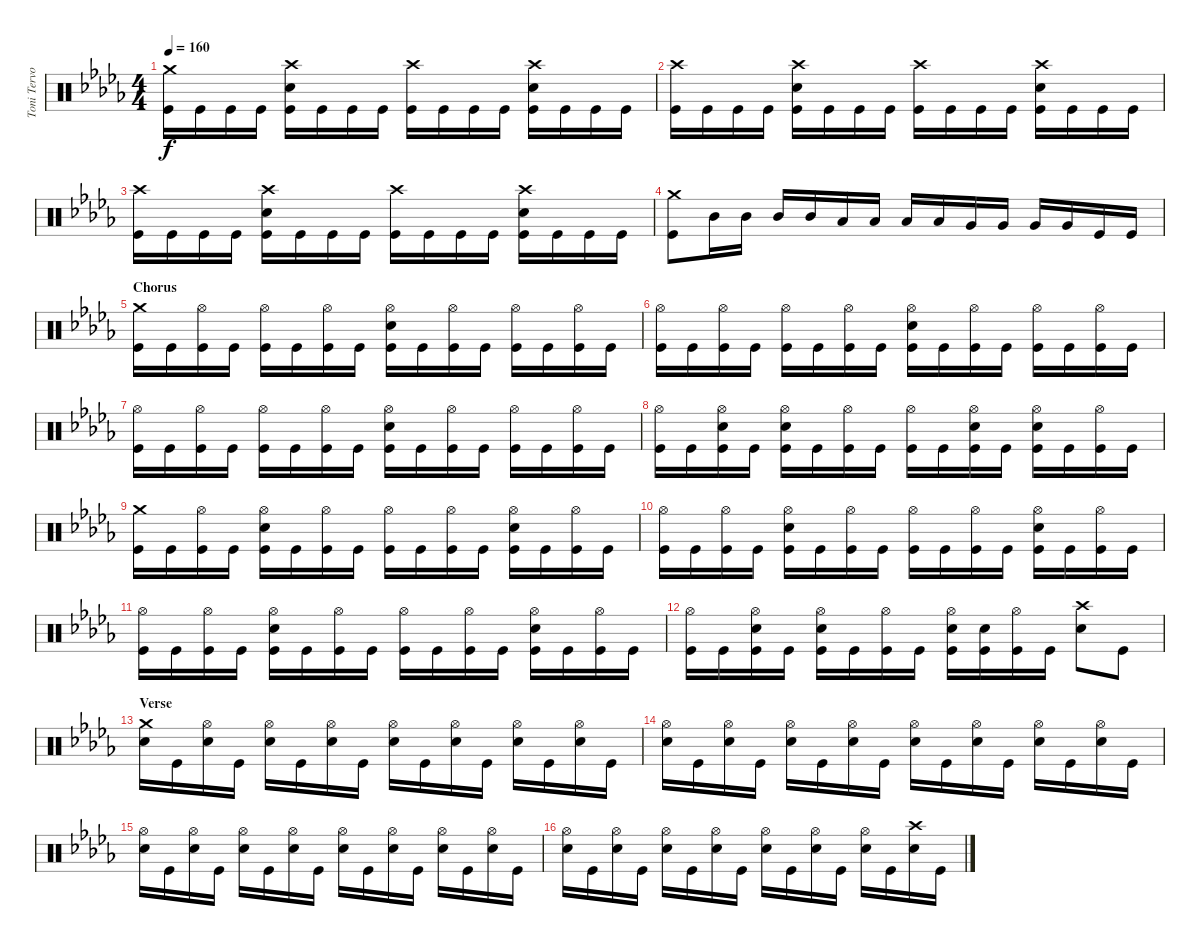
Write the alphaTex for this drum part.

\track ("Toni Tervo (drums)" "Toni Tervo") {instrument percussion}
\staff {score}
\articulation defaults
\ts (4 4)
\tempo 160
\clef neutral
\ks bbminor
("Kick (hit)" "Crash medium (hit)").16{dy f} "Kick (hit)".16 "Kick (hit)".16 "Kick (hit)".16 ("Kick (hit)" "Snare (hit) 2" "Crash high (hit)").16 "Kick (hit)".16 "Kick (hit)".16 "Kick (hit)".16 ("Kick (hit)" "Crash high (hit)").16 "Kick (hit)".16 "Kick (hit)".16 "Kick (hit)".16 ("Kick (hit)" "Snare (hit) 2" "Crash high (hit)").16 "Kick (hit)".16 "Kick (hit)".16 "Kick (hit)".16 |
("Kick (hit)" "Crash high (hit)").16 "Kick (hit)".16 "Kick (hit)".16 "Kick (hit)".16 ("Kick (hit)" "Snare (hit) 2" "Crash high (hit)").16 "Kick (hit)".16 "Kick (hit)".16 "Kick (hit)".16 ("Kick (hit)" "Crash high (hit)").16 "Kick (hit)".16 "Kick (hit)".16 "Kick (hit)".16 ("Kick (hit)" "Snare (hit) 2" "Crash high (hit)").16 "Kick (hit)".16 "Kick (hit)".16 "Kick (hit)".16 |
("Kick (hit)" "Crash high (hit)").16 "Kick (hit)".16 "Kick (hit)".16 "Kick (hit)".16 ("Kick (hit)" "Snare (hit) 2" "Crash high (hit)").16 "Kick (hit)".16 "Kick (hit)".16 "Kick (hit)".16 ("Kick (hit)" "Crash high (hit)").16 "Kick (hit)".16 "Kick (hit)".16 "Kick (hit)".16 ("Kick (hit)" "Snare (hit) 2" "Crash high (hit)").16 "Kick (hit)".16 "Kick (hit)".16 "Kick (hit)".16 |
("Kick (hit)" "Crash medium (hit)").8 "Mid Tom (hit)".16 "Mid Tom (hit)".16 "Mid Tom (hit)".16 "Mid Tom (hit)".16 "Low Tom (hit)".16 "Low Tom (hit)".16 "Low Tom (hit)".16 "Low Tom (hit)".16 "Very Low Tom (hit)".16 "Very Low Tom (hit)".16 "Very Low Tom (hit)".16 "Very Low Tom (hit)".16 "Kick (hit)".16 "Kick (hit)".16 |
\section ("" "Chorus")
("Kick (hit)" "Crash medium (hit)").16 "Kick (hit)".16 ("Hi-Hat (open)" "Kick (hit)").16 "Kick (hit)".16 ("Hi-Hat (open)" "Kick (hit)").16 "Kick (hit)".16 ("Hi-Hat (open)" "Kick (hit)").16 "Kick (hit)".16 ("Hi-Hat (open)" "Kick (hit)" "Snare (hit) 2").16 "Kick (hit)".16 ("Hi-Hat (open)" "Kick (hit)").16 "Kick (hit)".16 ("Hi-Hat (open)" "Kick (hit)").16 "Kick (hit)".16 ("Hi-Hat (open)" "Kick (hit)").16 "Kick (hit)".16 |
("Hi-Hat (open)" "Kick (hit)").16 "Kick (hit)".16 ("Hi-Hat (open)" "Kick (hit)").16 "Kick (hit)".16 ("Hi-Hat (open)" "Kick (hit)").16 "Kick (hit)".16 ("Hi-Hat (open)" "Kick (hit)").16 "Kick (hit)".16 ("Hi-Hat (open)" "Kick (hit)" "Snare (hit) 2").16 "Kick (hit)".16 ("Hi-Hat (open)" "Kick (hit)").16 "Kick (hit)".16 ("Hi-Hat (open)" "Kick (hit)").16 "Kick (hit)".16 ("Hi-Hat (open)" "Kick (hit)").16 "Kick (hit)".16 |
("Hi-Hat (open)" "Kick (hit)").16 "Kick (hit)".16 ("Hi-Hat (open)" "Kick (hit)").16 "Kick (hit)".16 ("Hi-Hat (open)" "Kick (hit)").16 "Kick (hit)".16 ("Hi-Hat (open)" "Kick (hit)").16 "Kick (hit)".16 ("Hi-Hat (open)" "Kick (hit)" "Snare (hit) 2").16 "Kick (hit)".16 ("Hi-Hat (open)" "Kick (hit)").16 "Kick (hit)".16 ("Hi-Hat (open)" "Kick (hit)").16 "Kick (hit)".16 ("Hi-Hat (open)" "Kick (hit)").16 "Kick (hit)".16 |
("Hi-Hat (open)" "Kick (hit)").16 "Kick (hit)".16 ("Hi-Hat (open)" "Kick (hit)" "Snare (hit) 2").16 "Kick (hit)".16 ("Hi-Hat (open)" "Kick (hit)" "Snare (hit) 2").16 "Kick (hit)".16 ("Hi-Hat (open)" "Kick (hit)").16 "Kick (hit)".16 ("Hi-Hat (open)" "Kick (hit)").16 "Kick (hit)".16 ("Hi-Hat (open)" "Kick (hit)" "Snare (hit) 2").16 "Kick (hit)".16 ("Hi-Hat (open)" "Kick (hit)" "Snare (hit) 2").16 "Kick (hit)".16 ("Hi-Hat (open)" "Kick (hit)").16 "Kick (hit)".16 |
("Kick (hit)" "Crash medium (hit)").16 "Kick (hit)".16 ("Hi-Hat (open)" "Kick (hit)").16 "Kick (hit)".16 ("Hi-Hat (open)" "Kick (hit)" "Snare (hit) 2").16 "Kick (hit)".16 ("Hi-Hat (open)" "Kick (hit)").16 "Kick (hit)".16 ("Hi-Hat (open)" "Kick (hit)").16 "Kick (hit)".16 ("Hi-Hat (open)" "Kick (hit)").16 "Kick (hit)".16 ("Hi-Hat (open)" "Kick (hit)" "Snare (hit) 2").16 "Kick (hit)".16 ("Hi-Hat (open)" "Kick (hit)").16 "Kick (hit)".16 |
("Hi-Hat (open)" "Kick (hit)").16 "Kick (hit)".16 ("Hi-Hat (open)" "Kick (hit)").16 "Kick (hit)".16 ("Hi-Hat (open)" "Kick (hit)" "Snare (hit) 2").16 "Kick (hit)".16 ("Hi-Hat (open)" "Kick (hit)").16 "Kick (hit)".16 ("Hi-Hat (open)" "Kick (hit)").16 "Kick (hit)".16 ("Hi-Hat (open)" "Kick (hit)").16 "Kick (hit)".16 ("Hi-Hat (open)" "Kick (hit)" "Snare (hit) 2").16 "Kick (hit)".16 ("Hi-Hat (open)" "Kick (hit)").16 "Kick (hit)".16 |
("Hi-Hat (open)" "Kick (hit)").16 "Kick (hit)".16 ("Hi-Hat (open)" "Kick (hit)").16 "Kick (hit)".16 ("Hi-Hat (open)" "Kick (hit)" "Snare (hit) 2").16 "Kick (hit)".16 ("Hi-Hat (open)" "Kick (hit)").16 "Kick (hit)".16 ("Hi-Hat (open)" "Kick (hit)").16 "Kick (hit)".16 ("Hi-Hat (open)" "Kick (hit)").16 "Kick (hit)".16 ("Hi-Hat (open)" "Kick (hit)" "Snare (hit) 2").16 "Kick (hit)".16 ("Hi-Hat (open)" "Kick (hit)").16 "Kick (hit)".16 |
("Hi-Hat (open)" "Kick (hit)").16 "Kick (hit)".16 ("Hi-Hat (open)" "Kick (hit)" "Snare (hit) 2").16 "Kick (hit)".16 ("Hi-Hat (open)" "Kick (hit)" "Snare (hit) 2").16 "Kick (hit)".16 ("Hi-Hat (open)" "Kick (hit)").16 "Kick (hit)".16 ("Hi-Hat (open)" "Kick (hit)" "Snare (hit) 2").16 ("Kick (hit)" "Snare (hit) 2").16 ("Hi-Hat (open)" "Kick (hit)").16 "Kick (hit)".16 ("Snare (hit) 2" "Crash high (hit)").8 "Kick (hit)".8 |
\section ("" "Verse")
("Snare (hit) 2" "Crash medium (hit)").16 "Kick (hit)".16 ("Snare (hit) 2" "Hi-Hat (open)").16 "Kick (hit)".16 ("Snare (hit) 2" "Hi-Hat (open)").16 "Kick (hit)".16 ("Snare (hit) 2" "Hi-Hat (open)").16 "Kick (hit)".16 ("Snare (hit) 2" "Hi-Hat (open)").16 "Kick (hit)".16 ("Snare (hit) 2" "Hi-Hat (open)").16 "Kick (hit)".16 ("Snare (hit) 2" "Hi-Hat (open)").16 "Kick (hit)".16 ("Snare (hit) 2" "Hi-Hat (open)").16 "Kick (hit)".16 |
("Snare (hit) 2" "Hi-Hat (open)").16 "Kick (hit)".16 ("Snare (hit) 2" "Hi-Hat (open)").16 "Kick (hit)".16 ("Snare (hit) 2" "Hi-Hat (open)").16 "Kick (hit)".16 ("Snare (hit) 2" "Hi-Hat (open)").16 "Kick (hit)".16 ("Snare (hit) 2" "Hi-Hat (open)").16 "Kick (hit)".16 ("Snare (hit) 2" "Hi-Hat (open)").16 "Kick (hit)".16 ("Snare (hit) 2" "Hi-Hat (open)").16 "Kick (hit)".16 ("Snare (hit) 2" "Hi-Hat (open)").16 "Kick (hit)".16 |
("Snare (hit) 2" "Hi-Hat (open)").16 "Kick (hit)".16 ("Snare (hit) 2" "Hi-Hat (open)").16 "Kick (hit)".16 ("Snare (hit) 2" "Hi-Hat (open)").16 "Kick (hit)".16 ("Snare (hit) 2" "Hi-Hat (open)").16 "Kick (hit)".16 ("Snare (hit) 2" "Hi-Hat (open)").16 "Kick (hit)".16 ("Snare (hit) 2" "Hi-Hat (open)").16 "Kick (hit)".16 ("Snare (hit) 2" "Hi-Hat (open)").16 "Kick (hit)".16 ("Snare (hit) 2" "Hi-Hat (open)").16 "Kick (hit)".16 |
("Snare (hit) 2" "Hi-Hat (open)").16 "Kick (hit)".16 ("Snare (hit) 2" "Hi-Hat (open)").16 "Kick (hit)".16 ("Snare (hit) 2" "Hi-Hat (open)").16 "Kick (hit)".16 ("Snare (hit) 2" "Hi-Hat (open)").16 "Kick (hit)".16 ("Snare (hit) 2" "Hi-Hat (open)").16 "Kick (hit)".16 ("Snare (hit) 2" "Hi-Hat (open)").16 "Kick (hit)".16 ("Snare (hit) 2" "Hi-Hat (open)").16 "Kick (hit)".16 ("Snare (hit) 2" "Crash high (hit)").16 "Kick (hit)".16
